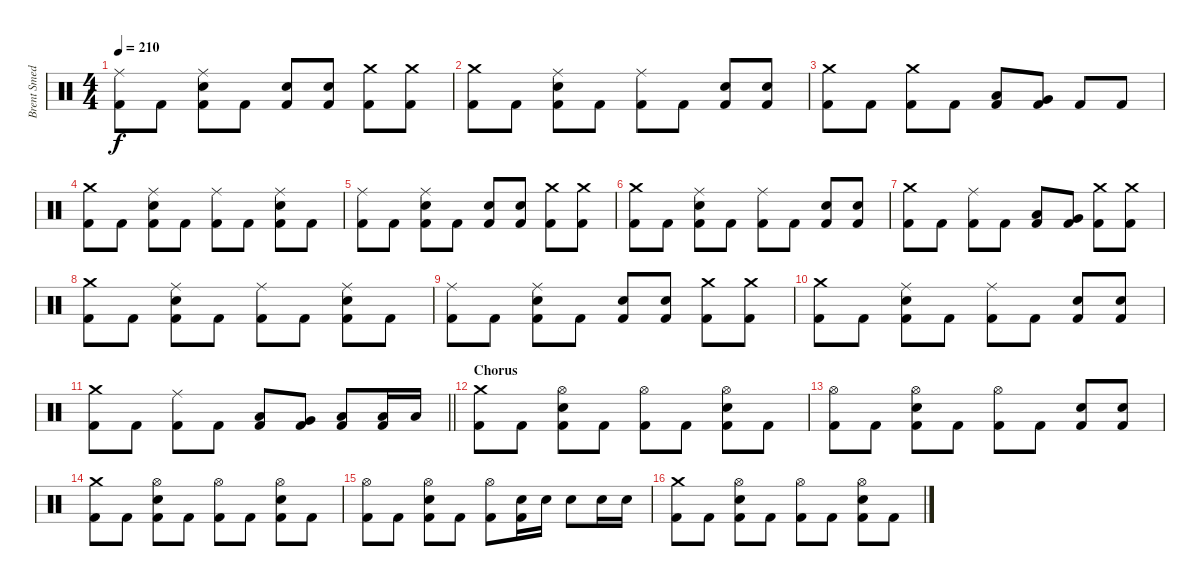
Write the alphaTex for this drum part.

\track ("Brent Smedley" "Brent Smed") {instrument percussion}
\staff {score}
\articulation defaults
\ts (4 4)
\tempo 210
\clef neutral
\ks c
("Ride (middle)" "Kick (hit) 2").8{dy f} "Kick (hit) 2".8 ("Ride (middle)" "Electric Snare (hit)" "Kick (hit) 2").8 "Kick (hit) 2".8 ("Electric Snare (hit)" "Kick (hit) 2").8 ("Electric Snare (hit)" "Kick (hit) 2").8 ("Crash medium (hit)" "Kick (hit) 2").8 ("Crash medium (hit)" "Kick (hit) 2").8 |
("Crash medium (hit)" "Kick (hit) 2").8 "Kick (hit) 2".8 ("Ride (middle)" "Electric Snare (hit)" "Kick (hit) 2").8 "Kick (hit) 2".8 ("Ride (middle)" "Kick (hit) 2").8 "Kick (hit) 2".8 ("Electric Snare (hit)" "Kick (hit) 2").8 ("Electric Snare (hit)" "Kick (hit) 2").8 |
("Crash medium (hit)" "Kick (hit) 2").8 "Kick (hit) 2".8 ("Crash medium (hit)" "Kick (hit) 2").8 "Kick (hit) 2".8 ("Low Tom (hit)" "Kick (hit) 2").8 ("Very Low Tom (hit)" "Kick (hit) 2").8 "Kick (hit) 2".8 "Kick (hit) 2".8 |
("Crash medium (hit)" "Kick (hit) 2").8 "Kick (hit) 2".8 ("Ride (middle)" "Electric Snare (hit)" "Kick (hit) 2").8 "Kick (hit) 2".8 ("Ride (middle)" "Kick (hit) 2").8 "Kick (hit) 2".8 ("Ride (middle)" "Electric Snare (hit)" "Kick (hit) 2").8 "Kick (hit) 2".8 |
("Ride (middle)" "Kick (hit) 2").8 "Kick (hit) 2".8 ("Ride (middle)" "Electric Snare (hit)" "Kick (hit) 2").8 "Kick (hit) 2".8 ("Electric Snare (hit)" "Kick (hit) 2").8 ("Electric Snare (hit)" "Kick (hit) 2").8 ("Crash medium (hit)" "Kick (hit) 2").8 ("Crash medium (hit)" "Kick (hit) 2").8 |
("Crash medium (hit)" "Kick (hit) 2").8 "Kick (hit) 2".8 ("Ride (middle)" "Electric Snare (hit)" "Kick (hit) 2").8 "Kick (hit) 2".8 ("Ride (middle)" "Kick (hit) 2").8 "Kick (hit) 2".8 ("Electric Snare (hit)" "Kick (hit) 2").8 ("Electric Snare (hit)" "Kick (hit) 2").8 |
("Crash medium (hit)" "Kick (hit) 2").8 "Kick (hit) 2".8 ("Ride (middle)" "Kick (hit) 2").8 "Kick (hit) 2".8 ("Low Tom (hit)" "Kick (hit) 2").8 ("Very Low Tom (hit)" "Kick (hit) 2").8 ("Crash medium (hit)" "Kick (hit) 2").8 ("Crash medium (hit)" "Kick (hit) 2").8 |
("Crash medium (hit)" "Kick (hit) 2").8 "Kick (hit) 2".8 ("Ride (middle)" "Electric Snare (hit)" "Kick (hit) 2").8 "Kick (hit) 2".8 ("Ride (middle)" "Kick (hit) 2").8 "Kick (hit) 2".8 ("Ride (middle)" "Electric Snare (hit)" "Kick (hit) 2").8 "Kick (hit) 2".8 |
("Ride (middle)" "Kick (hit) 2").8 "Kick (hit) 2".8 ("Ride (middle)" "Electric Snare (hit)" "Kick (hit) 2").8 "Kick (hit) 2".8 ("Electric Snare (hit)" "Kick (hit) 2").8 ("Electric Snare (hit)" "Kick (hit) 2").8 ("Crash medium (hit)" "Kick (hit) 2").8 ("Crash medium (hit)" "Kick (hit) 2").8 |
("Crash medium (hit)" "Kick (hit) 2").8 "Kick (hit) 2".8 ("Ride (middle)" "Electric Snare (hit)" "Kick (hit) 2").8 "Kick (hit) 2".8 ("Ride (middle)" "Kick (hit) 2").8 "Kick (hit) 2".8 ("Electric Snare (hit)" "Kick (hit) 2").8 ("Electric Snare (hit)" "Kick (hit) 2").8 |
\barLineRight lightlight
("Crash medium (hit)" "Kick (hit) 2").8 "Kick (hit) 2".8 ("Ride (middle)" "Kick (hit) 2").8 "Kick (hit) 2".8 ("Low Tom (hit)" "Kick (hit) 2").8 ("Very Low Tom (hit)" "Kick (hit) 2").8 ("Low Floor Tom (hit)" "Kick (hit) 2").8 ("Low Floor Tom (hit)" "Kick (hit) 2").16 "Low Floor Tom (hit)".16 |
\section ("" "Chorus")
("Crash medium (hit)" "Kick (hit) 2").8 "Kick (hit) 2".8 ("Hi-Hat (open)" "Electric Snare (hit)" "Kick (hit) 2").8 "Kick (hit) 2".8 ("Hi-Hat (open)" "Kick (hit) 2").8 "Kick (hit) 2".8 ("Hi-Hat (open)" "Electric Snare (hit)" "Kick (hit) 2").8 "Kick (hit) 2".8 |
("Hi-Hat (open)" "Kick (hit) 2").8 "Kick (hit) 2".8 ("Hi-Hat (open)" "Electric Snare (hit)" "Kick (hit) 2").8 "Kick (hit) 2".8 ("Hi-Hat (open)" "Kick (hit) 2").8 "Kick (hit) 2".8 ("Electric Snare (hit)" "Kick (hit) 2").8 ("Electric Snare (hit)" "Kick (hit) 2").8 |
("Crash medium (hit)" "Kick (hit) 2").8 "Kick (hit) 2".8 ("Hi-Hat (open)" "Electric Snare (hit)" "Kick (hit) 2").8 "Kick (hit) 2".8 ("Hi-Hat (open)" "Kick (hit) 2").8 "Kick (hit) 2".8 ("Hi-Hat (open)" "Electric Snare (hit)" "Kick (hit) 2").8 "Kick (hit) 2".8 |
("Hi-Hat (open)" "Kick (hit) 2").8 "Kick (hit) 2".8 ("Hi-Hat (open)" "Electric Snare (hit)" "Kick (hit) 2").8 "Kick (hit) 2".8 ("Hi-Hat (open)" "Kick (hit) 2").8 ("Electric Snare (hit)" "Kick (hit) 2").16 "Electric Snare (hit)".16 "Electric Snare (hit)".8 "Electric Snare (hit)".16 "Electric Snare (hit)".16 |
("Crash medium (hit)" "Kick (hit) 2").8 "Kick (hit) 2".8 ("Hi-Hat (open)" "Electric Snare (hit)" "Kick (hit) 2").8 "Kick (hit) 2".8 ("Hi-Hat (open)" "Kick (hit) 2").8 "Kick (hit) 2".8 ("Hi-Hat (open)" "Electric Snare (hit)" "Kick (hit) 2").8 "Kick (hit) 2".8
